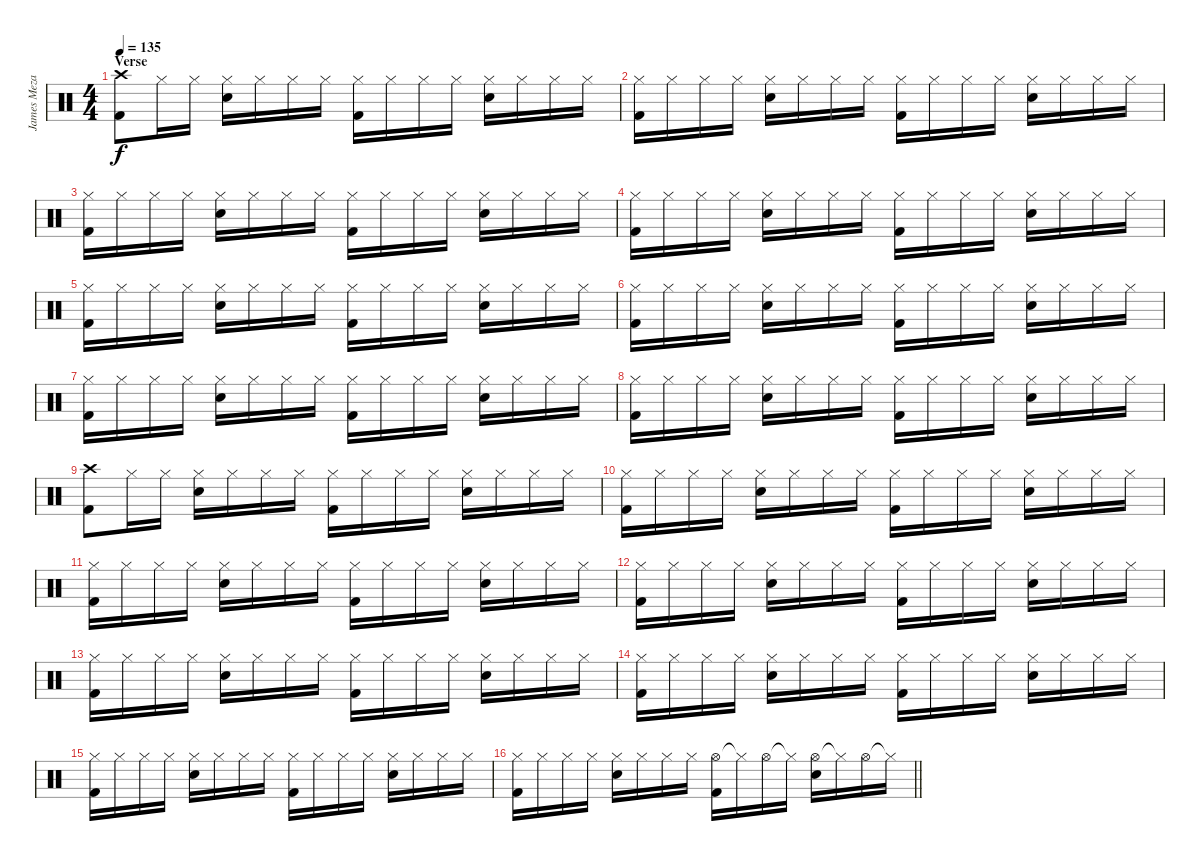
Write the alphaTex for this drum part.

\track ("James Meza - Drums" "James Meza") {instrument percussion}
\staff {score}
\articulation defaults
\ts (4 4)
\section ("" "Verse")
\tempo 135
\clef neutral
\ks c
("Crash high (hit)" "Kick (hit) 2").8{dy f} "Hi-Hat (closed)".16 "Hi-Hat (closed)".16 ("Hi-Hat (closed)" "Electric Snare (hit)").16 "Hi-Hat (closed)".16 "Hi-Hat (closed)".16 "Hi-Hat (closed)".16 ("Hi-Hat (closed)" "Kick (hit) 2").16 "Hi-Hat (closed)".16 "Hi-Hat (closed)".16 "Hi-Hat (closed)".16 ("Hi-Hat (closed)" "Electric Snare (hit)").16 "Hi-Hat (closed)".16 "Hi-Hat (closed)".16 "Hi-Hat (closed)".16 |
("Hi-Hat (closed)" "Kick (hit) 2").16 "Hi-Hat (closed)".16 "Hi-Hat (closed)".16 "Hi-Hat (closed)".16 ("Hi-Hat (closed)" "Electric Snare (hit)").16 "Hi-Hat (closed)".16 "Hi-Hat (closed)".16 "Hi-Hat (closed)".16 ("Hi-Hat (closed)" "Kick (hit) 2").16 "Hi-Hat (closed)".16 "Hi-Hat (closed)".16 "Hi-Hat (closed)".16 ("Hi-Hat (closed)" "Electric Snare (hit)").16 "Hi-Hat (closed)".16 "Hi-Hat (closed)".16 "Hi-Hat (closed)".16 |
("Hi-Hat (closed)" "Kick (hit) 2").16 "Hi-Hat (closed)".16 "Hi-Hat (closed)".16 "Hi-Hat (closed)".16 ("Hi-Hat (closed)" "Electric Snare (hit)").16 "Hi-Hat (closed)".16 "Hi-Hat (closed)".16 "Hi-Hat (closed)".16 ("Hi-Hat (closed)" "Kick (hit) 2").16 "Hi-Hat (closed)".16 "Hi-Hat (closed)".16 "Hi-Hat (closed)".16 ("Hi-Hat (closed)" "Electric Snare (hit)").16 "Hi-Hat (closed)".16 "Hi-Hat (closed)".16 "Hi-Hat (closed)".16 |
("Hi-Hat (closed)" "Kick (hit) 2").16 "Hi-Hat (closed)".16 "Hi-Hat (closed)".16 "Hi-Hat (closed)".16 ("Hi-Hat (closed)" "Electric Snare (hit)").16 "Hi-Hat (closed)".16 "Hi-Hat (closed)".16 "Hi-Hat (closed)".16 ("Hi-Hat (closed)" "Kick (hit) 2").16 "Hi-Hat (closed)".16 "Hi-Hat (closed)".16 "Hi-Hat (closed)".16 ("Hi-Hat (closed)" "Electric Snare (hit)").16 "Hi-Hat (closed)".16 "Hi-Hat (closed)".16 "Hi-Hat (closed)".16 |
("Hi-Hat (closed)" "Kick (hit) 2").16 "Hi-Hat (closed)".16 "Hi-Hat (closed)".16 "Hi-Hat (closed)".16 ("Hi-Hat (closed)" "Electric Snare (hit)").16 "Hi-Hat (closed)".16 "Hi-Hat (closed)".16 "Hi-Hat (closed)".16 ("Hi-Hat (closed)" "Kick (hit) 2").16 "Hi-Hat (closed)".16 "Hi-Hat (closed)".16 "Hi-Hat (closed)".16 ("Hi-Hat (closed)" "Electric Snare (hit)").16 "Hi-Hat (closed)".16 "Hi-Hat (closed)".16 "Hi-Hat (closed)".16 |
("Hi-Hat (closed)" "Kick (hit) 2").16 "Hi-Hat (closed)".16 "Hi-Hat (closed)".16 "Hi-Hat (closed)".16 ("Hi-Hat (closed)" "Electric Snare (hit)").16 "Hi-Hat (closed)".16 "Hi-Hat (closed)".16 "Hi-Hat (closed)".16 ("Hi-Hat (closed)" "Kick (hit) 2").16 "Hi-Hat (closed)".16 "Hi-Hat (closed)".16 "Hi-Hat (closed)".16 ("Hi-Hat (closed)" "Electric Snare (hit)").16 "Hi-Hat (closed)".16 "Hi-Hat (closed)".16 "Hi-Hat (closed)".16 |
("Hi-Hat (closed)" "Kick (hit) 2").16 "Hi-Hat (closed)".16 "Hi-Hat (closed)".16 "Hi-Hat (closed)".16 ("Hi-Hat (closed)" "Electric Snare (hit)").16 "Hi-Hat (closed)".16 "Hi-Hat (closed)".16 "Hi-Hat (closed)".16 ("Hi-Hat (closed)" "Kick (hit) 2").16 "Hi-Hat (closed)".16 "Hi-Hat (closed)".16 "Hi-Hat (closed)".16 ("Hi-Hat (closed)" "Electric Snare (hit)").16 "Hi-Hat (closed)".16 "Hi-Hat (closed)".16 "Hi-Hat (closed)".16 |
("Hi-Hat (closed)" "Kick (hit) 2").16 "Hi-Hat (closed)".16 "Hi-Hat (closed)".16 "Hi-Hat (closed)".16 ("Hi-Hat (closed)" "Electric Snare (hit)").16 "Hi-Hat (closed)".16 "Hi-Hat (closed)".16 "Hi-Hat (closed)".16 ("Hi-Hat (closed)" "Kick (hit) 2").16 "Hi-Hat (closed)".16 "Hi-Hat (closed)".16 "Hi-Hat (closed)".16 ("Hi-Hat (closed)" "Electric Snare (hit)").16 "Hi-Hat (closed)".16 "Hi-Hat (closed)".16 "Hi-Hat (closed)".16 |
("Crash high (hit)" "Kick (hit) 2").8 "Hi-Hat (closed)".16 "Hi-Hat (closed)".16 ("Hi-Hat (closed)" "Electric Snare (hit)").16 "Hi-Hat (closed)".16 "Hi-Hat (closed)".16 "Hi-Hat (closed)".16 ("Hi-Hat (closed)" "Kick (hit) 2").16 "Hi-Hat (closed)".16 "Hi-Hat (closed)".16 "Hi-Hat (closed)".16 ("Hi-Hat (closed)" "Electric Snare (hit)").16 "Hi-Hat (closed)".16 "Hi-Hat (closed)".16 "Hi-Hat (closed)".16 |
("Hi-Hat (closed)" "Kick (hit) 2").16 "Hi-Hat (closed)".16 "Hi-Hat (closed)".16 "Hi-Hat (closed)".16 ("Hi-Hat (closed)" "Electric Snare (hit)").16 "Hi-Hat (closed)".16 "Hi-Hat (closed)".16 "Hi-Hat (closed)".16 ("Hi-Hat (closed)" "Kick (hit) 2").16 "Hi-Hat (closed)".16 "Hi-Hat (closed)".16 "Hi-Hat (closed)".16 ("Hi-Hat (closed)" "Electric Snare (hit)").16 "Hi-Hat (closed)".16 "Hi-Hat (closed)".16 "Hi-Hat (closed)".16 |
("Hi-Hat (closed)" "Kick (hit) 2").16 "Hi-Hat (closed)".16 "Hi-Hat (closed)".16 "Hi-Hat (closed)".16 ("Hi-Hat (closed)" "Electric Snare (hit)").16 "Hi-Hat (closed)".16 "Hi-Hat (closed)".16 "Hi-Hat (closed)".16 ("Hi-Hat (closed)" "Kick (hit) 2").16 "Hi-Hat (closed)".16 "Hi-Hat (closed)".16 "Hi-Hat (closed)".16 ("Hi-Hat (closed)" "Electric Snare (hit)").16 "Hi-Hat (closed)".16 "Hi-Hat (closed)".16 "Hi-Hat (closed)".16 |
("Hi-Hat (closed)" "Kick (hit) 2").16 "Hi-Hat (closed)".16 "Hi-Hat (closed)".16 "Hi-Hat (closed)".16 ("Hi-Hat (closed)" "Electric Snare (hit)").16 "Hi-Hat (closed)".16 "Hi-Hat (closed)".16 "Hi-Hat (closed)".16 ("Hi-Hat (closed)" "Kick (hit) 2").16 "Hi-Hat (closed)".16 "Hi-Hat (closed)".16 "Hi-Hat (closed)".16 ("Hi-Hat (closed)" "Electric Snare (hit)").16 "Hi-Hat (closed)".16 "Hi-Hat (closed)".16 "Hi-Hat (closed)".16 |
("Hi-Hat (closed)" "Kick (hit) 2").16 "Hi-Hat (closed)".16 "Hi-Hat (closed)".16 "Hi-Hat (closed)".16 ("Hi-Hat (closed)" "Electric Snare (hit)").16 "Hi-Hat (closed)".16 "Hi-Hat (closed)".16 "Hi-Hat (closed)".16 ("Hi-Hat (closed)" "Kick (hit) 2").16 "Hi-Hat (closed)".16 "Hi-Hat (closed)".16 "Hi-Hat (closed)".16 ("Hi-Hat (closed)" "Electric Snare (hit)").16 "Hi-Hat (closed)".16 "Hi-Hat (closed)".16 "Hi-Hat (closed)".16 |
("Hi-Hat (closed)" "Kick (hit) 2").16 "Hi-Hat (closed)".16 "Hi-Hat (closed)".16 "Hi-Hat (closed)".16 ("Hi-Hat (closed)" "Electric Snare (hit)").16 "Hi-Hat (closed)".16 "Hi-Hat (closed)".16 "Hi-Hat (closed)".16 ("Hi-Hat (closed)" "Kick (hit) 2").16 "Hi-Hat (closed)".16 "Hi-Hat (closed)".16 "Hi-Hat (closed)".16 ("Hi-Hat (closed)" "Electric Snare (hit)").16 "Hi-Hat (closed)".16 "Hi-Hat (closed)".16 "Hi-Hat (closed)".16 |
("Hi-Hat (closed)" "Kick (hit) 2").16 "Hi-Hat (closed)".16 "Hi-Hat (closed)".16 "Hi-Hat (closed)".16 ("Hi-Hat (closed)" "Electric Snare (hit)").16 "Hi-Hat (closed)".16 "Hi-Hat (closed)".16 "Hi-Hat (closed)".16 ("Hi-Hat (closed)" "Kick (hit) 2").16 "Hi-Hat (closed)".16 "Hi-Hat (closed)".16 "Hi-Hat (closed)".16 ("Hi-Hat (closed)" "Electric Snare (hit)").16 "Hi-Hat (closed)".16 "Hi-Hat (closed)".16 "Hi-Hat (closed)".16 |
\barLineRight lightlight
("Hi-Hat (closed)" "Kick (hit) 2").16 "Hi-Hat (closed)".16 "Hi-Hat (closed)".16 "Hi-Hat (closed)".16 ("Hi-Hat (closed)" "Electric Snare (hit)").16 "Hi-Hat (closed)".16 "Hi-Hat (closed)".16 "Hi-Hat (closed)".16 ("Hi-Hat (open)" "Kick (hit) 2").16 "Hi-Hat (closed)"{t}.16 "Hi-Hat (open)".16 "Hi-Hat (closed)"{t}.16 ("Hi-Hat (open)" "Electric Snare (hit)").16 "Hi-Hat (closed)"{t}.16 "Hi-Hat (open)".16 "Hi-Hat (closed)"{t}.16
